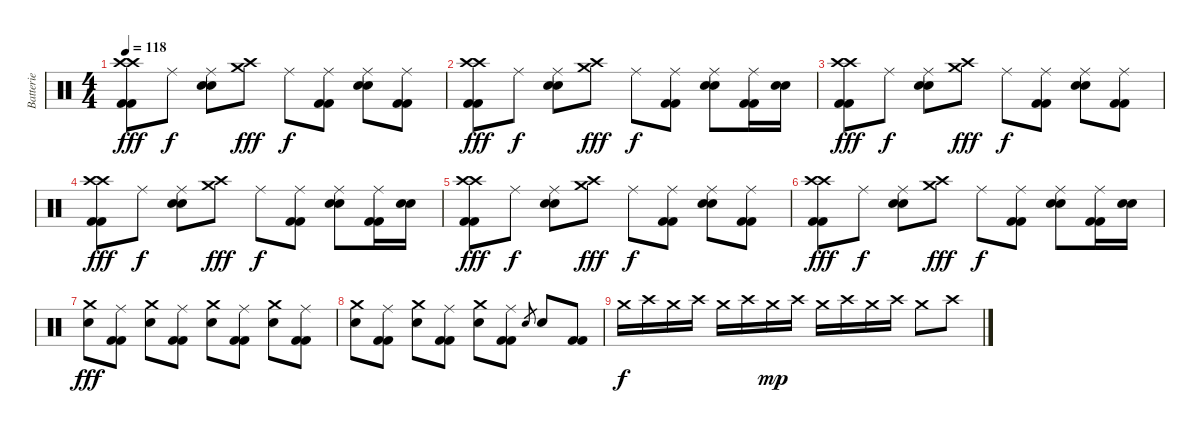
\track ("Batterie" "Batterie") {instrument percussion}
\staff {score}
\articulation defaults
\ts (4 4)
\tempo 118
\clef neutral
\ks c
("Crash high (hit)" "Crash high (hit)" "Kick (hit) 2" "Kick (hit) 2").8{dy fff} "Ride (middle)".8{dy f} ("Ride (middle)" "Snare (hit) 2" "Snare (hit) 2").8 ("Crash medium (hit)" "Crash high (hit)").8{dy fff} "Ride (middle)".8{dy f} ("Ride (middle)" "Kick (hit) 2" "Kick (hit) 2").8 ("Ride (middle)" "Snare (hit) 2" "Snare (hit) 2").8 ("Ride (middle)" "Kick (hit) 2" "Kick (hit) 2").8 |
("Crash high (hit)" "Crash high (hit)" "Kick (hit) 2" "Kick (hit) 2").8{dy fff} "Ride (middle)".8{dy f} ("Ride (middle)" "Snare (hit) 2" "Snare (hit) 2").8 ("Crash medium (hit)" "Crash high (hit)").8{dy fff} "Ride (middle)".8{dy f} ("Ride (middle)" "Kick (hit) 2" "Kick (hit) 2").8 ("Ride (middle)" "Snare (hit) 2" "Snare (hit) 2").8 ("Ride (middle)" "Kick (hit) 2" "Kick (hit) 2").16 ("Snare (hit) 2" "Snare (hit) 2").16 |
("Crash high (hit)" "Crash high (hit)" "Kick (hit) 2" "Kick (hit) 2").8{dy fff} "Ride (middle)".8{dy f} ("Ride (middle)" "Snare (hit) 2" "Snare (hit) 2").8 ("Crash medium (hit)" "Crash high (hit)").8{dy fff} "Ride (middle)".8{dy f} ("Ride (middle)" "Kick (hit) 2" "Kick (hit) 2").8 ("Ride (middle)" "Snare (hit) 2" "Snare (hit) 2").8 ("Ride (middle)" "Kick (hit) 2" "Kick (hit) 2").8 |
("Crash high (hit)" "Crash high (hit)" "Kick (hit) 2" "Kick (hit) 2").8{dy fff} "Ride (middle)".8{dy f} ("Ride (middle)" "Snare (hit) 2" "Snare (hit) 2").8 ("Crash medium (hit)" "Crash high (hit)").8{dy fff} "Ride (middle)".8{dy f} ("Ride (middle)" "Kick (hit) 2" "Kick (hit) 2").8 ("Ride (middle)" "Snare (hit) 2" "Snare (hit) 2").8 ("Ride (middle)" "Kick (hit) 2" "Kick (hit) 2").16 ("Snare (hit) 2" "Snare (hit) 2").16 |
("Crash high (hit)" "Crash high (hit)" "Kick (hit) 2" "Kick (hit) 2").8{dy fff} "Ride (middle)".8{dy f} ("Ride (middle)" "Snare (hit) 2" "Snare (hit) 2").8 ("Crash medium (hit)" "Crash high (hit)").8{dy fff} "Ride (middle)".8{dy f} ("Ride (middle)" "Kick (hit) 2" "Kick (hit) 2").8 ("Ride (middle)" "Snare (hit) 2" "Snare (hit) 2").8 ("Ride (middle)" "Kick (hit) 2" "Kick (hit) 2").8 |
("Crash high (hit)" "Crash high (hit)" "Kick (hit) 2" "Kick (hit) 2").8{dy fff} "Ride (middle)".8{dy f} ("Ride (middle)" "Snare (hit) 2" "Snare (hit) 2").8 ("Crash medium (hit)" "Crash high (hit)").8{dy fff} "Ride (middle)".8{dy f} ("Ride (middle)" "Kick (hit) 2" "Kick (hit) 2").8 ("Ride (middle)" "Snare (hit) 2" "Snare (hit) 2").8 ("Ride (middle)" "Kick (hit) 2" "Kick (hit) 2").16 ("Snare (hit) 2" "Snare (hit) 2").16 |
("Crash medium (hit)" "Snare (hit) 2").8{dy fff} ("Ride (middle)" "Kick (hit) 2" "Kick (hit) 2").8 ("Crash medium (hit)" "Snare (hit) 2").8 ("Ride (middle)" "Kick (hit) 2" "Kick (hit) 2").8 ("Crash medium (hit)" "Snare (hit) 2").8 ("Ride (middle)" "Kick (hit) 2" "Kick (hit) 2").8 ("Crash medium (hit)" "Snare (hit) 2").8 ("Ride (middle)" "Kick (hit) 2" "Kick (hit) 2").8 |
("Crash medium (hit)" "Snare (hit) 2").8 ("Ride (middle)" "Kick (hit) 2" "Kick (hit) 2").8 ("Crash medium (hit)" "Snare (hit) 2").8 ("Ride (middle)" "Kick (hit) 2" "Kick (hit) 2").8 ("Crash medium (hit)" "Snare (hit) 2").8 ("Ride (middle)" "Kick (hit) 2" "Kick (hit) 2").8 "Snare (hit) 2".8{gr} "Snare (hit) 2".8 ("Kick (hit) 2" "Kick (hit) 2").8 |
"Crash medium (hit)".16{dy f} "Crash high (hit)".16 "Crash medium (hit)".16 "Crash high (hit)".16 "Crash medium (hit)".16 "Crash high (hit)".16 "Crash medium (hit)".16{dy mp} "Crash high (hit)".16 "Crash medium (hit)".16 "Crash high (hit)".16 "Crash medium (hit)".16 "Crash high (hit)".16 "Crash medium (hit)".8 "Crash high (hit)".8
